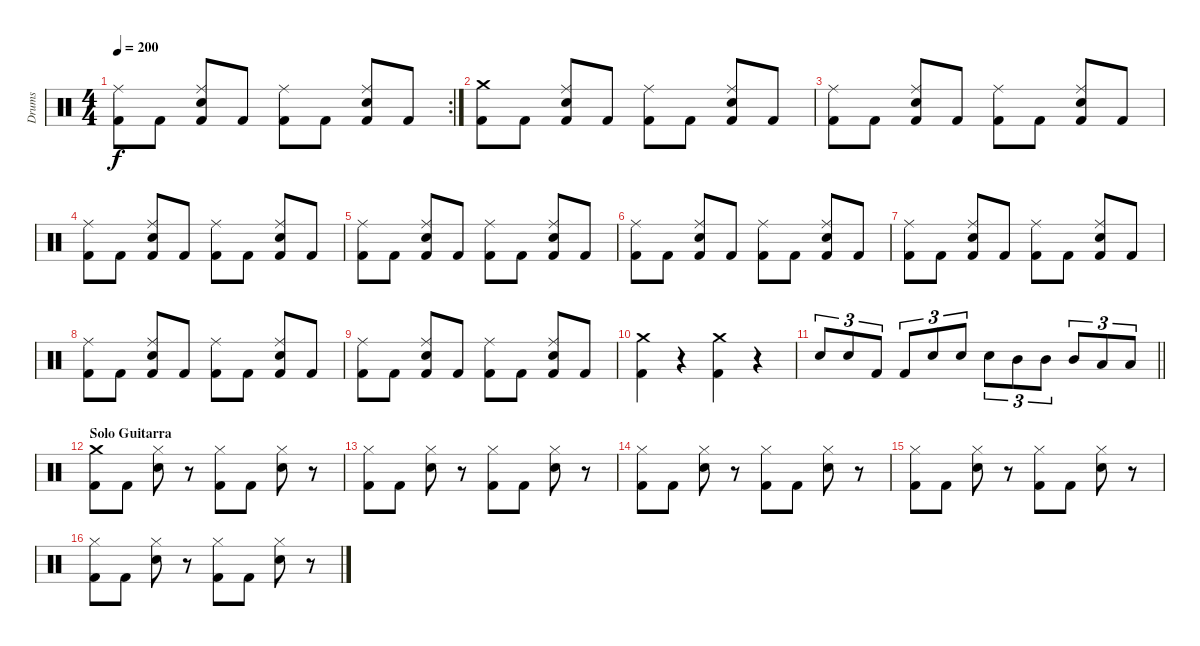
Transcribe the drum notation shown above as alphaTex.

\track ("Drums" "Drums") {instrument percussion}
\staff {score}
\articulation defaults
\rc 2
\ts (4 4)
\tempo 200
\clef neutral
\ks c
("Kick (hit) 2" "Ride (middle)").8{dy f} "Kick (hit) 2".8 ("Kick (hit) 2" "Ride (middle)" "Electric Snare (hit)").8 "Kick (hit) 2".8 ("Kick (hit) 2" "Ride (middle)").8 "Kick (hit) 2".8 ("Kick (hit) 2" "Ride (middle)" "Electric Snare (hit)").8 "Kick (hit) 2".8 |
("Kick (hit) 2" "Crash medium (hit)").8 "Kick (hit) 2".8 ("Kick (hit) 2" "Ride (middle)" "Electric Snare (hit)").8 "Kick (hit) 2".8 ("Kick (hit) 2" "Ride (middle)").8 "Kick (hit) 2".8 ("Kick (hit) 2" "Ride (middle)" "Electric Snare (hit)").8 "Kick (hit) 2".8 |
("Kick (hit) 2" "Ride (middle)").8 "Kick (hit) 2".8 ("Kick (hit) 2" "Ride (middle)" "Electric Snare (hit)").8 "Kick (hit) 2".8 ("Kick (hit) 2" "Ride (middle)").8 "Kick (hit) 2".8 ("Kick (hit) 2" "Ride (middle)" "Electric Snare (hit)").8 "Kick (hit) 2".8 |
("Kick (hit) 2" "Ride (middle)").8 "Kick (hit) 2".8 ("Kick (hit) 2" "Ride (middle)" "Electric Snare (hit)").8 "Kick (hit) 2".8 ("Kick (hit) 2" "Ride (middle)").8 "Kick (hit) 2".8 ("Kick (hit) 2" "Ride (middle)" "Electric Snare (hit)").8 "Kick (hit) 2".8 |
("Kick (hit) 2" "Ride (middle)").8 "Kick (hit) 2".8 ("Kick (hit) 2" "Ride (middle)" "Electric Snare (hit)").8 "Kick (hit) 2".8 ("Kick (hit) 2" "Ride (middle)").8 "Kick (hit) 2".8 ("Kick (hit) 2" "Ride (middle)" "Electric Snare (hit)").8 "Kick (hit) 2".8 |
("Kick (hit) 2" "Ride (middle)").8 "Kick (hit) 2".8 ("Kick (hit) 2" "Ride (middle)" "Electric Snare (hit)").8 "Kick (hit) 2".8 ("Kick (hit) 2" "Ride (middle)").8 "Kick (hit) 2".8 ("Kick (hit) 2" "Ride (middle)" "Electric Snare (hit)").8 "Kick (hit) 2".8 |
("Kick (hit) 2" "Ride (middle)").8 "Kick (hit) 2".8 ("Kick (hit) 2" "Ride (middle)" "Electric Snare (hit)").8 "Kick (hit) 2".8 ("Kick (hit) 2" "Ride (middle)").8 "Kick (hit) 2".8 ("Kick (hit) 2" "Ride (middle)" "Electric Snare (hit)").8 "Kick (hit) 2".8 |
("Kick (hit) 2" "Ride (middle)").8 "Kick (hit) 2".8 ("Kick (hit) 2" "Ride (middle)" "Electric Snare (hit)").8 "Kick (hit) 2".8 ("Kick (hit) 2" "Ride (middle)").8 "Kick (hit) 2".8 ("Kick (hit) 2" "Ride (middle)" "Electric Snare (hit)").8 "Kick (hit) 2".8 |
("Kick (hit) 2" "Ride (middle)").8 "Kick (hit) 2".8 ("Kick (hit) 2" "Ride (middle)" "Electric Snare (hit)").8 "Kick (hit) 2".8 ("Kick (hit) 2" "Ride (middle)").8 "Kick (hit) 2".8 ("Kick (hit) 2" "Ride (middle)" "Electric Snare (hit)").8 "Kick (hit) 2".8 |
("Kick (hit) 2" "Crash medium (hit)").4 r.4{volume 0} ("Kick (hit) 2" "Crash medium (hit)").4{volume 13} r.4{volume 0} |
\barLineRight lightlight "Electric Snare (hit)".8{tu (3 2) volume 13} "Electric Snare (hit)".8{tu (3 2)} "Kick (hit) 2".8{tu (3 2)} "Kick (hit) 2".8{tu (3 2)} "Electric Snare (hit)".8{tu (3 2)} "Electric Snare (hit)".8{tu (3 2)} "Electric Snare (hit)".8{tu (3 2)} "Mid Tom (hit)".8{tu (3 2)} "Mid Tom (hit)".8{tu (3 2)} "Mid Tom (hit)".8{tu (3 2)} "Low Tom (hit)".8{tu (3 2)} "Low Tom (hit)".8{tu (3 2)}
|
\section ("" "Solo Guitarra")
("Kick (hit) 2" "Crash medium (hit)").8 "Kick (hit) 2".8 ("Hi-Hat (closed)" "Electric Snare (hit)").8 r.8 ("Kick (hit) 2" "Hi-Hat (closed)").8 "Kick (hit) 2".8 ("Hi-Hat (closed)" "Electric Snare (hit)").8 r.8 |
("Kick (hit) 2" "Hi-Hat (closed)").8 "Kick (hit) 2".8 ("Hi-Hat (closed)" "Electric Snare (hit)").8 r.8 ("Kick (hit) 2" "Hi-Hat (closed)").8 "Kick (hit) 2".8 ("Hi-Hat (closed)" "Electric Snare (hit)").8 r.8 |
("Kick (hit) 2" "Hi-Hat (closed)").8 "Kick (hit) 2".8 ("Hi-Hat (closed)" "Electric Snare (hit)").8 r.8 ("Kick (hit) 2" "Hi-Hat (closed)").8 "Kick (hit) 2".8 ("Hi-Hat (closed)" "Electric Snare (hit)").8 r.8 |
("Kick (hit) 2" "Hi-Hat (closed)").8 "Kick (hit) 2".8 ("Hi-Hat (closed)" "Electric Snare (hit)").8 r.8 ("Kick (hit) 2" "Hi-Hat (closed)").8 "Kick (hit) 2".8 ("Hi-Hat (closed)" "Electric Snare (hit)").8 r.8 |
("Kick (hit) 2" "Hi-Hat (closed)").8 "Kick (hit) 2".8 ("Hi-Hat (closed)" "Electric Snare (hit)").8 r.8 ("Kick (hit) 2" "Hi-Hat (closed)").8 "Kick (hit) 2".8 ("Hi-Hat (closed)" "Electric Snare (hit)").8 r.8
